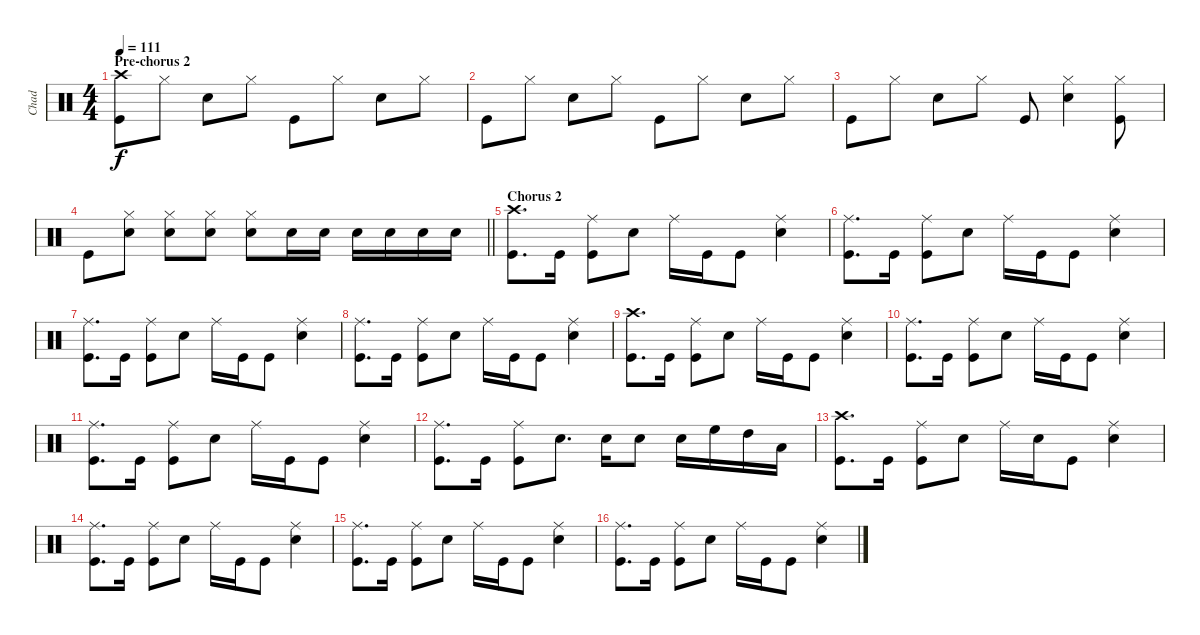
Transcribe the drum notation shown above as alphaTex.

\track ("Chad" "Chad") {instrument percussion}
\staff {score}
\articulation defaults
\ts (4 4)
\section ("" "Pre-chorus 2")
\tempo 111
\clef neutral
\ks c
("Crash high (hit)" "Kick (hit)").8{dy f} "Hi-Hat (closed)".8 "Snare (hit) 2".8 "Hi-Hat (closed)".8 "Kick (hit)".8 "Hi-Hat (closed)".8 "Snare (hit) 2".8 "Hi-Hat (closed)".8 |
"Kick (hit)".8 "Hi-Hat (closed)".8 "Snare (hit) 2".8 "Hi-Hat (closed)".8 "Kick (hit)".8 "Hi-Hat (closed)".8 "Snare (hit) 2".8 "Hi-Hat (closed)".8 |
"Kick (hit)".8 "Hi-Hat (closed)".8 "Snare (hit) 2".8 "Hi-Hat (closed)".8 "Kick (hit)".8 ("Snare (hit) 2" "Hi-Hat (closed)").4 ("Kick (hit)" "Hi-Hat (closed)").8 |
\barLineRight lightlight "Kick (hit)".8
("Snare (hit) 2" "Hi-Hat (closed)").8 ("Snare (hit) 2" "Hi-Hat (closed)").8 ("Snare (hit) 2" "Hi-Hat (closed)").8 ("Snare (hit) 2" "Hi-Hat (closed)").8 "Snare (hit) 2".16 "Snare (hit) 2".16 "Snare (hit) 2".16 "Snare (hit) 2".16 "Snare (hit) 2".16 "Snare (hit) 2".16 |
\section ("" "Chorus 2")
("Kick (hit)" "Crash high (hit)").8{d} "Kick (hit)".16 ("Kick (hit)" "Ride (middle)").8 "Snare (hit) 2".8 "Ride (middle)".16 "Kick (hit)".16 "Kick (hit)".8 ("Snare (hit) 2" "Ride (middle)").4 |
("Kick (hit)" "Ride (middle)").8{d} "Kick (hit)".16 ("Kick (hit)" "Ride (middle)").8 "Snare (hit) 2".8 "Ride (middle)".16 "Kick (hit)".16 "Kick (hit)".8 ("Snare (hit) 2" "Ride (middle)").4 |
("Kick (hit)" "Ride (middle)").8{d} "Kick (hit)".16 ("Kick (hit)" "Ride (middle)").8 "Snare (hit) 2".8 "Ride (middle)".16 "Kick (hit)".16 "Kick (hit)".8 ("Snare (hit) 2" "Ride (middle)").4 |
("Kick (hit)" "Ride (middle)").8{d} "Kick (hit)".16 ("Kick (hit)" "Ride (middle)").8 "Snare (hit) 2".8 "Ride (middle)".16 "Kick (hit)".16 "Kick (hit)".8 ("Snare (hit) 2" "Ride (middle)").4 |
("Kick (hit)" "Crash high (hit)").8{d} "Kick (hit)".16 ("Kick (hit)" "Ride (middle)").8 "Snare (hit) 2".8 "Ride (middle)".16 "Kick (hit)".16 "Kick (hit)".8 ("Snare (hit) 2" "Ride (middle)").4 |
("Kick (hit)" "Ride (middle)").8{d} "Kick (hit)".16 ("Kick (hit)" "Ride (middle)").8 "Snare (hit) 2".8 "Ride (middle)".16 "Kick (hit)".16 "Kick (hit)".8 ("Snare (hit) 2" "Ride (middle)").4 |
("Kick (hit)" "Ride (middle)").8{d} "Kick (hit)".16 ("Kick (hit)" "Ride (middle)").8 "Snare (hit) 2".8 "Ride (middle)".16 "Kick (hit)".16 "Kick (hit)".8 ("Snare (hit) 2" "Ride (middle)").4 |
("Kick (hit)" "Ride (middle)").8{d} "Kick (hit)".16 ("Kick (hit)" "Ride (middle)").8 "Snare (hit) 2".8{d} "Snare (hit) 2".16 "Snare (hit) 2".8 "Snare (hit) 2".16 "High Floor Tom (hit)".16 "High Tom (hit)".16 "Low Floor Tom (hit)".16 |
("Kick (hit)" "Crash high (hit)").8{d} "Kick (hit)".16 ("Kick (hit)" "Ride (middle)").8 "Snare (hit) 2".8 "Ride (middle)".16 "Snare (hit) 2".16 "Kick (hit)".8 ("Snare (hit) 2" "Ride (middle)").4 |
("Kick (hit)" "Ride (middle)").8{d} "Kick (hit)".16 ("Kick (hit)" "Ride (middle)").8 "Snare (hit) 2".8 "Ride (middle)".16 "Kick (hit)".16 "Kick (hit)".8 ("Snare (hit) 2" "Ride (middle)").4 |
("Kick (hit)" "Ride (middle)").8{d} "Kick (hit)".16 ("Kick (hit)" "Ride (middle)").8 "Snare (hit) 2".8 "Ride (middle)".16 "Kick (hit)".16 "Kick (hit)".8 ("Snare (hit) 2" "Ride (middle)").4 |
("Kick (hit)" "Ride (middle)").8{d} "Kick (hit)".16 ("Kick (hit)" "Ride (middle)").8 "Snare (hit) 2".8 "Ride (middle)".16 "Kick (hit)".16 "Kick (hit)".8 ("Snare (hit) 2" "Ride (middle)").4
